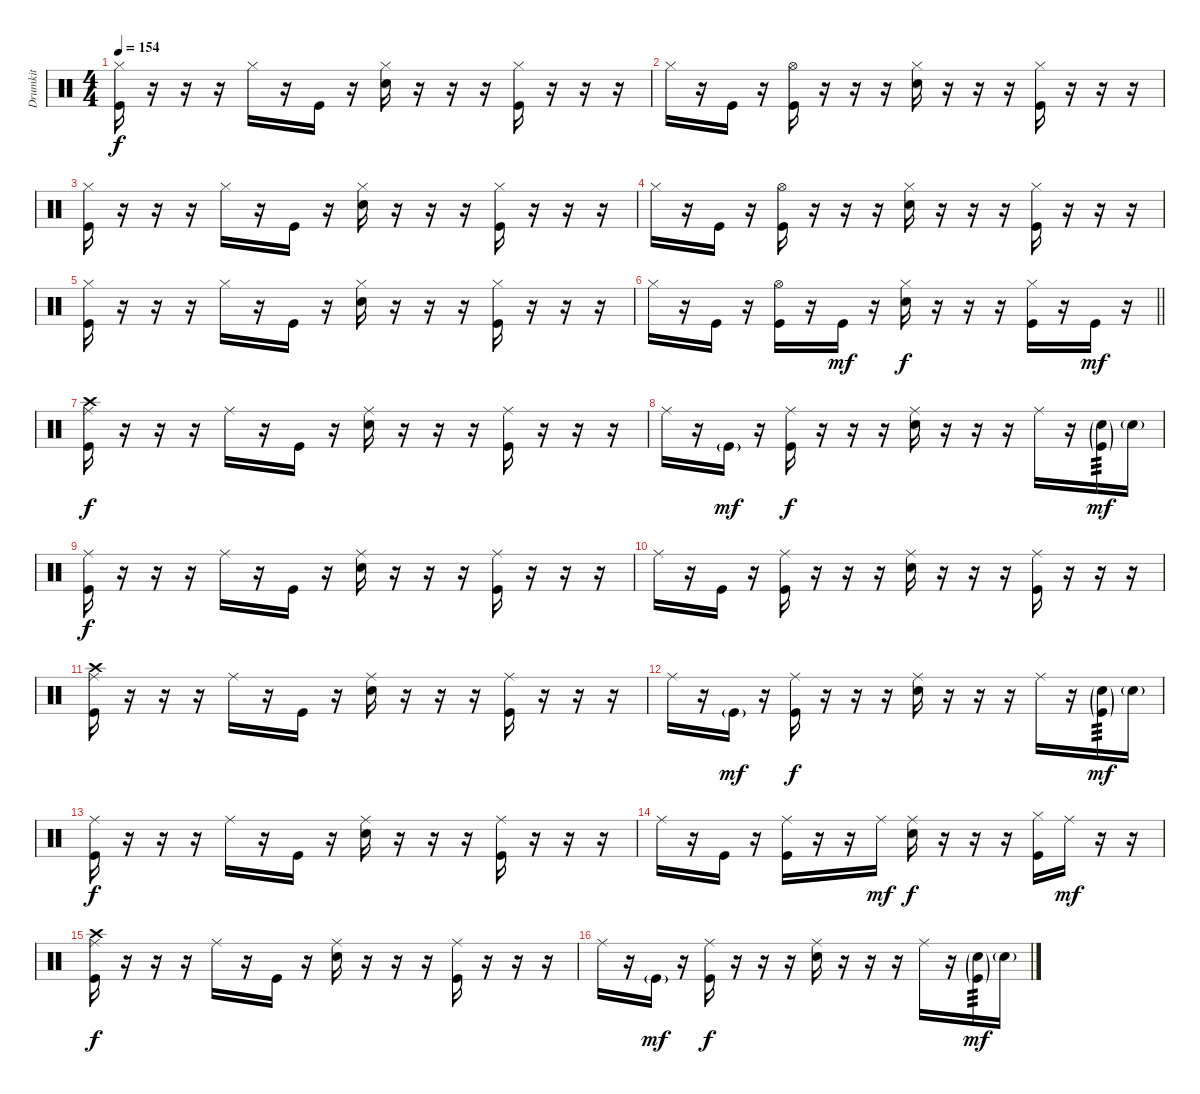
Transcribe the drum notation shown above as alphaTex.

\track ("Drumkit" "Drumkit") {instrument percussion}
\staff {score}
\articulation defaults
\ts (4 4)
\tempo 154
\clef neutral
\ks c
("Hi-Hat (closed)" "Kick (hit)").16{dy f} r.16 r.16 r.16 "Hi-Hat (closed)".16 r.16 "Kick (hit)".16 r.16 ("Hi-Hat (closed)" "Snare (hit) 2").16 r.16 r.16 r.16 ("Hi-Hat (closed)" "Kick (hit)").16 r.16 r.16 r.16 |
"Hi-Hat (closed)".16 r.16 "Kick (hit)".16 r.16 ("Hi-Hat (open)" "Kick (hit)").16 r.16 r.16 r.16 ("Hi-Hat (closed)" "Snare (hit) 2").16 r.16 r.16 r.16 ("Hi-Hat (closed)" "Kick (hit)").16 r.16 r.16 r.16 |
("Hi-Hat (closed)" "Kick (hit)").16 r.16 r.16 r.16 "Hi-Hat (closed)".16 r.16 "Kick (hit)".16 r.16 ("Hi-Hat (closed)" "Snare (hit) 2").16 r.16 r.16 r.16 ("Hi-Hat (closed)" "Kick (hit)").16 r.16 r.16 r.16 |
"Hi-Hat (closed)".16 r.16 "Kick (hit)".16 r.16 ("Hi-Hat (open)" "Kick (hit)").16 r.16 r.16 r.16 ("Hi-Hat (closed)" "Snare (hit) 2").16 r.16 r.16 r.16 ("Hi-Hat (closed)" "Kick (hit)").16 r.16 r.16 r.16 |
("Hi-Hat (closed)" "Kick (hit)").16 r.16 r.16 r.16 "Hi-Hat (closed)".16 r.16 "Kick (hit)".16 r.16 ("Hi-Hat (closed)" "Snare (hit) 2").16 r.16 r.16 r.16 ("Hi-Hat (closed)" "Kick (hit)").16 r.16 r.16 r.16 |
\barLineRight lightlight "Hi-Hat (closed)".16
r.16 "Kick (hit)".16 r.16 ("Hi-Hat (open)" "Kick (hit)").16 r.16 "Kick (hit)".16{dy mf} r.16 ("Hi-Hat (closed)" "Snare (hit) 2").16{dy f} r.16 r.16 r.16 ("Hi-Hat (closed)" "Kick (hit)").16 r.16 "Kick (hit)".16{dy mf} r.16 |
("Crash high (hit)" "Ride (middle)" "Kick (hit)").16{dy f} r.16 r.16 r.16 "Ride (middle)".16 r.16 "Kick (hit)".16 r.16 ("Ride (middle)" "Snare (hit) 2").16 r.16 r.16 r.16 ("Ride (middle)" "Kick (hit)").16 r.16 r.16 r.16 |
"Ride (middle)".16 r.16 "Kick (hit)"{g}.16{dy mf} r.16 ("Ride (middle)" "Kick (hit)").16{dy f} r.16 r.16 r.16 ("Ride (middle)" "Snare (hit) 2").16 r.16 r.16 r.16 "Ride (middle)".16 r.16 ("Snare (hit) 2"{g} "Kick (hit)"{g}).16{tp 3 dy mf} "Snare (hit) 2"{g}.16 |
("Ride (middle)" "Kick (hit)").16{dy f} r.16 r.16 r.16 "Ride (middle)".16 r.16 "Kick (hit)".16 r.16 ("Ride (middle)" "Snare (hit) 2").16 r.16 r.16 r.16 ("Ride (middle)" "Kick (hit)").16 r.16 r.16 r.16 |
"Ride (middle)".16 r.16 "Kick (hit)".16 r.16 ("Ride (middle)" "Kick (hit)").16 r.16 r.16 r.16 ("Ride (middle)" "Snare (hit) 2").16 r.16 r.16 r.16 ("Ride (middle)" "Kick (hit)").16 r.16 r.16 r.16 |
("Crash high (hit)" "Ride (middle)" "Kick (hit)").16 r.16 r.16 r.16 "Ride (middle)".16 r.16 "Kick (hit)".16 r.16 ("Ride (middle)" "Snare (hit) 2").16 r.16 r.16 r.16 ("Ride (middle)" "Kick (hit)").16 r.16 r.16 r.16 |
"Ride (middle)".16 r.16 "Kick (hit)"{g}.16{dy mf} r.16 ("Ride (middle)" "Kick (hit)").16{dy f} r.16 r.16 r.16 ("Ride (middle)" "Snare (hit) 2").16 r.16 r.16 r.16 "Ride (middle)".16 r.16 ("Snare (hit) 2"{g} "Kick (hit)"{g}).16{tp 3 dy mf} "Snare (hit) 2"{g}.16 |
("Ride (middle)" "Kick (hit)").16{dy f} r.16 r.16 r.16 "Ride (middle)".16 r.16 "Kick (hit)".16 r.16 ("Ride (middle)" "Snare (hit) 2").16 r.16 r.16 r.16 ("Ride (middle)" "Kick (hit)").16 r.16 r.16 r.16 |
"Ride (middle)".16 r.16 "Kick (hit)".16 r.16 ("Ride (middle)" "Kick (hit)").16 r.16 r.16 "Ride (middle)".16{dy mf} ("Ride (middle)" "Snare (hit) 2").16{dy f} r.16 r.16 r.16 ("Hi-Hat (closed)" "Kick (hit)").16 "Ride (middle)".16{dy mf} r.16 r.16 |
("Crash high (hit)" "Ride (middle)" "Kick (hit)").16{dy f} r.16 r.16 r.16 "Ride (middle)".16 r.16 "Kick (hit)".16 r.16 ("Ride (middle)" "Snare (hit) 2").16 r.16 r.16 r.16 ("Ride (middle)" "Kick (hit)").16 r.16 r.16 r.16 |
"Ride (middle)".16 r.16 "Kick (hit)"{g}.16{dy mf} r.16 ("Ride (middle)" "Kick (hit)").16{dy f} r.16 r.16 r.16 ("Ride (middle)" "Snare (hit) 2").16 r.16 r.16 r.16 "Ride (middle)".16 r.16 ("Snare (hit) 2"{g} "Kick (hit)"{g}).16{tp 3 dy mf} "Snare (hit) 2"{g}.16
